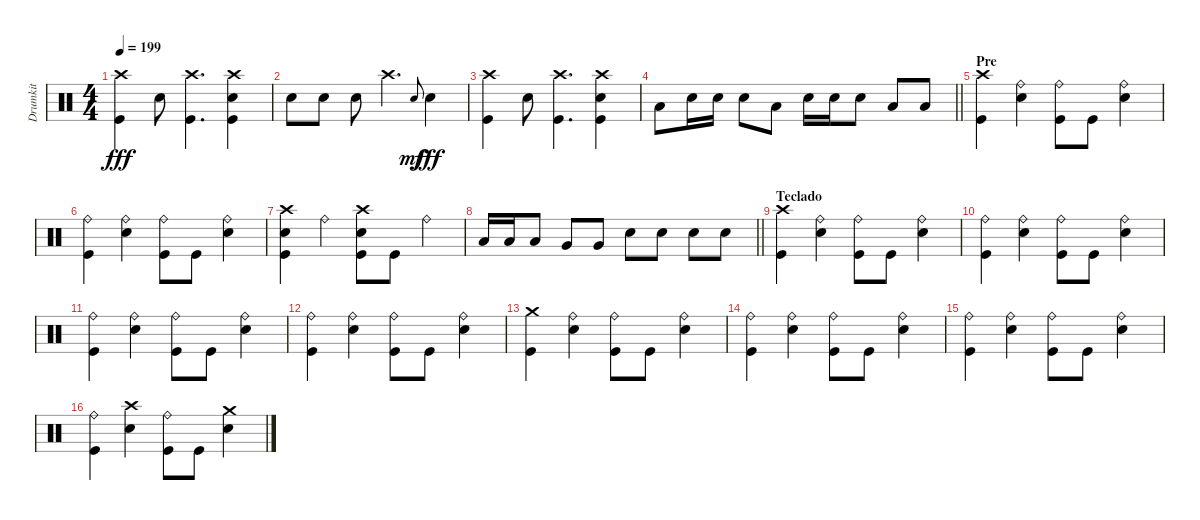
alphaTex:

\track ("Drumkit" "Drumkit") {instrument percussion}
\staff
\articulation defaults
\ts (4 4)
\tempo 199
\clef neutral
\ks c
("Crash high (hit)" "Kick (hit)").4{dy fff} "Snare (hit) 2".8 ("Crash high (hit)" "Kick (hit)").4{d} ("Crash high (hit)" "Kick (hit)" "Snare (hit) 2").4 |
"Snare (hit) 2".8 "Snare (hit) 2".8 "Snare (hit) 2".8 "Crash high (hit)".4{d} "Snare (hit)".8{gr onbeat dy mf} "Snare (hit) 2".4{dy fff} |
("Crash high (hit)" "Kick (hit)").4 "Snare (hit) 2".8 ("Crash high (hit)" "Kick (hit)").4{d} ("Crash high (hit)" "Kick (hit)" "Snare (hit) 2").4 |
\barLineRight lightlight "Low Tom (hit)".8 "Snare (hit) 2".16 "Snare (hit) 2".16 "Snare (hit) 2".8 "Low Tom (hit)".8 "Snare (hit) 2".16 "Snare (hit) 2".16 "Snare (hit) 2".8 "Low Tom (hit)".8 "Low Tom (hit)".8
|
\section ("" "Pre")
("Kick (hit)" "Crash high (hit)").4 ("Snare (hit) 2" "Ride (bell)").4 ("Kick (hit)" "Ride (bell)").8 "Kick (hit)".8 ("Snare (hit) 2" "Ride (bell)").4 |
("Kick (hit)" "Ride (bell)").4 ("Snare (hit) 2" "Ride (bell)").4 ("Kick (hit)" "Ride (bell)").8 "Kick (hit)".8 ("Snare (hit) 2" "Ride (bell)").4 |
("Kick (hit)" "Snare (hit) 2" "Crash high (hit)").4 "Ride (bell)".4 ("Kick (hit)" "Snare (hit) 2" "Crash high (hit)").8 "Kick (hit)".8 "Ride (bell)".4 |
\barLineRight lightlight "Low Tom (hit)".16 "Low Tom (hit)".16 "Low Tom (hit)".8 "Very Low Tom (hit)".8 "Very Low Tom (hit)".8 "Snare (hit) 2".8 "Snare (hit) 2".8 "Snare (hit) 2".8 "Snare (hit) 2".8
|
\section ("" "Teclado")
("Crash high (hit)" "Kick (hit)").4 ("Snare (hit) 2" "Ride (bell)").4 ("Kick (hit)" "Ride (bell)").8 "Kick (hit)".8 ("Snare (hit) 2" "Ride (bell)").4 |
("Kick (hit)" "Ride (bell)").4 ("Snare (hit) 2" "Ride (bell)").4 ("Kick (hit)" "Ride (bell)").8 "Kick (hit)".8 ("Snare (hit) 2" "Ride (bell)").4 |
("Kick (hit)" "Ride (bell)").4 ("Snare (hit) 2" "Ride (bell)").4 ("Kick (hit)" "Ride (bell)").8 "Kick (hit)".8 ("Snare (hit) 2" "Ride (bell)").4 |
("Kick (hit)" "Ride (bell)").4 ("Snare (hit) 2" "Ride (bell)").4 ("Kick (hit)" "Ride (bell)").8 "Kick (hit)".8 ("Snare (hit) 2" "Ride (bell)").4 |
("Kick (hit)" "Crash medium (hit)").4 ("Snare (hit) 2" "Ride (bell)").4 ("Kick (hit)" "Ride (bell)").8 "Kick (hit)".8 ("Snare (hit) 2" "Ride (bell)").4 |
("Kick (hit)" "Ride (bell)").4 ("Snare (hit) 2" "Ride (bell)").4 ("Kick (hit)" "Ride (bell)").8 "Kick (hit)".8 ("Snare (hit) 2" "Ride (bell)").4 |
("Kick (hit)" "Ride (bell)").4 ("Snare (hit) 2" "Ride (bell)").4 ("Kick (hit)" "Ride (bell)").8 "Kick (hit)".8 ("Snare (hit) 2" "Ride (bell)").4 |
("Kick (hit)" "Ride (bell)").4 ("Snare (hit) 2" "Crash high (hit)").4 ("Kick (hit)" "Ride (bell)").8 "Kick (hit)".8 ("Snare (hit) 2" "Crash medium (hit)").4
